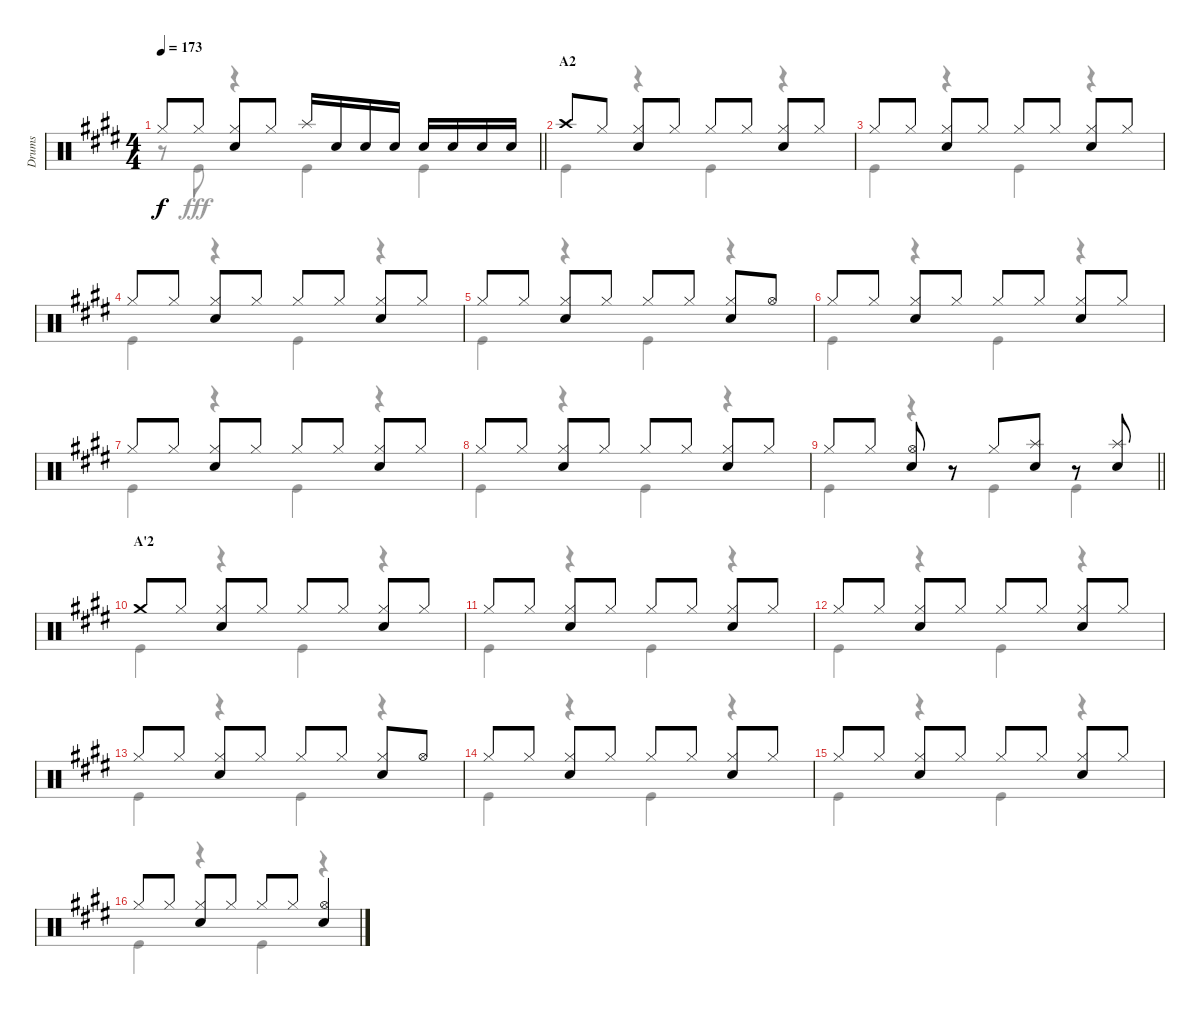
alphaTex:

\track ("Drums" "Drums") {instrument percussion}
\staff {score}
\articulation defaults
\voice
\ts (4 4)
\tempo 173
\clef neutral
\barLineRight lightlight
\ks e "Hi-Hat (closed)".8{dy f} "Hi-Hat (closed)".8
("Hi-Hat (closed)" "Snare (hit) 2").8 "Hi-Hat (closed)".8 "Splash (hit)".16 "Snare (hit) 2".16 "Snare (hit) 2".16 "Snare (hit) 2".16 "Snare (hit) 2".16 "Snare (hit) 2".16 "Snare (hit) 2".16 "Snare (hit) 2".16 |
\section ("" "A2")
"Crash high (hit)".8 "Hi-Hat (closed)".8 ("Hi-Hat (closed)" "Snare (hit) 2").8 "Hi-Hat (closed)".8 "Hi-Hat (closed)".8 "Hi-Hat (closed)".8 ("Hi-Hat (closed)" "Snare (hit) 2").8 "Hi-Hat (closed)".8 |
"Hi-Hat (closed)".8 "Hi-Hat (closed)".8 ("Hi-Hat (closed)" "Snare (hit) 2").8 "Hi-Hat (closed)".8 "Hi-Hat (closed)".8 "Hi-Hat (closed)".8 ("Hi-Hat (closed)" "Snare (hit) 2").8 "Hi-Hat (closed)".8 |
"Hi-Hat (closed)".8 "Hi-Hat (closed)".8 ("Hi-Hat (closed)" "Snare (hit) 2").8 "Hi-Hat (closed)".8 "Hi-Hat (closed)".8 "Hi-Hat (closed)".8 ("Hi-Hat (closed)" "Snare (hit) 2").8 "Hi-Hat (closed)".8 |
"Hi-Hat (closed)".8 "Hi-Hat (closed)".8 ("Hi-Hat (closed)" "Snare (hit) 2").8 "Hi-Hat (closed)".8 "Hi-Hat (closed)".8 "Hi-Hat (closed)".8 ("Hi-Hat (closed)" "Snare (hit) 2").8 "Hi-Hat (open)".8 |
"Hi-Hat (closed)".8 "Hi-Hat (closed)".8 ("Hi-Hat (closed)" "Snare (hit) 2").8 "Hi-Hat (closed)".8 "Hi-Hat (closed)".8 "Hi-Hat (closed)".8 ("Hi-Hat (closed)" "Snare (hit) 2").8 "Hi-Hat (closed)".8 |
"Hi-Hat (closed)".8 "Hi-Hat (closed)".8 ("Hi-Hat (closed)" "Snare (hit) 2").8 "Hi-Hat (closed)".8 "Hi-Hat (closed)".8 "Hi-Hat (closed)".8 ("Hi-Hat (closed)" "Snare (hit) 2").8 "Hi-Hat (closed)".8 |
"Hi-Hat (closed)".8 "Hi-Hat (closed)".8 ("Hi-Hat (closed)" "Snare (hit) 2").8 "Hi-Hat (closed)".8 "Hi-Hat (closed)".8 "Hi-Hat (closed)".8 ("Hi-Hat (closed)" "Snare (hit) 2").8 "Hi-Hat (closed)".8 |
\barLineRight lightlight "Hi-Hat (closed)".8 "Hi-Hat (closed)".8
("Hi-Hat (open)" "Snare (hit) 2").8 r.8 "Hi-Hat (closed)".8 ("Splash (hit)" "Snare (hit) 2").8 r.8 ("Splash (hit)" "Snare (hit) 2").8 |
\section ("" "A'2")
"Crash medium (hit)".8 "Hi-Hat (closed)".8 ("Hi-Hat (closed)" "Snare (hit) 2").8 "Hi-Hat (closed)".8 "Hi-Hat (closed)".8 "Hi-Hat (closed)".8 ("Hi-Hat (closed)" "Snare (hit) 2").8 "Hi-Hat (closed)".8 |
"Hi-Hat (closed)".8 "Hi-Hat (closed)".8 ("Hi-Hat (closed)" "Snare (hit) 2").8 "Hi-Hat (closed)".8 "Hi-Hat (closed)".8 "Hi-Hat (closed)".8 ("Hi-Hat (closed)" "Snare (hit) 2").8 "Hi-Hat (closed)".8 |
"Hi-Hat (closed)".8 "Hi-Hat (closed)".8 ("Hi-Hat (closed)" "Snare (hit) 2").8 "Hi-Hat (closed)".8 "Hi-Hat (closed)".8 "Hi-Hat (closed)".8 ("Hi-Hat (closed)" "Snare (hit) 2").8 "Hi-Hat (closed)".8 |
"Hi-Hat (closed)".8 "Hi-Hat (closed)".8 ("Hi-Hat (closed)" "Snare (hit) 2").8 "Hi-Hat (closed)".8 "Hi-Hat (closed)".8 "Hi-Hat (closed)".8 ("Hi-Hat (closed)" "Snare (hit) 2").8 "Hi-Hat (open)".8 |
"Hi-Hat (closed)".8 "Hi-Hat (closed)".8 ("Hi-Hat (closed)" "Snare (hit) 2").8 "Hi-Hat (closed)".8 "Hi-Hat (closed)".8 "Hi-Hat (closed)".8 ("Hi-Hat (closed)" "Snare (hit) 2").8 "Hi-Hat (closed)".8 |
"Hi-Hat (closed)".8 "Hi-Hat (closed)".8 ("Hi-Hat (closed)" "Snare (hit) 2").8 "Hi-Hat (closed)".8 "Hi-Hat (closed)".8 "Hi-Hat (closed)".8 ("Hi-Hat (closed)" "Snare (hit) 2").8 "Hi-Hat (closed)".8 |
"Hi-Hat (closed)".8 "Hi-Hat (closed)".8 ("Hi-Hat (closed)" "Snare (hit) 2").8 "Hi-Hat (closed)".8 "Hi-Hat (closed)".8 "Hi-Hat (closed)".8 ("Hi-Hat (open)" "Snare (hit) 2").4
\voice
\clef neutral
\ottava regular
\simile none
\barLineRight lightlight
\ks e
r.8{dy fff} "Kick (hit)".8 r.4 "Kick (hit)".4 "Kick (hit)".4 |
"Kick (hit)".4 r.4 "Kick (hit)".4 r.4 |
"Kick (hit)".4 r.4 "Kick (hit)".4 r.4 |
"Kick (hit)".4 r.4 "Kick (hit)".4 r.4 |
"Kick (hit)".4 r.4 "Kick (hit)".4 r.4 |
"Kick (hit)".4 r.4 "Kick (hit)".4 r.4 |
"Kick (hit)".4 r.4 "Kick (hit)".4 r.4 |
"Kick (hit)".4 r.4 "Kick (hit)".4 r.4 |
\barLineRight lightlight "Kick (hit)".4
r.4 "Kick (hit)".4 "Kick (hit)".4 |
"Kick (hit)".4 r.4 "Kick (hit)".4 r.4 |
"Kick (hit)".4 r.4 "Kick (hit)".4 r.4 |
"Kick (hit)".4 r.4 "Kick (hit)".4 r.4 |
"Kick (hit)".4 r.4 "Kick (hit)".4 r.4 |
"Kick (hit)".4 r.4 "Kick (hit)".4 r.4 |
"Kick (hit)".4 r.4 "Kick (hit)".4 r.4 |
"Kick (hit)".4 r.4 "Kick (hit)".4 r.4
